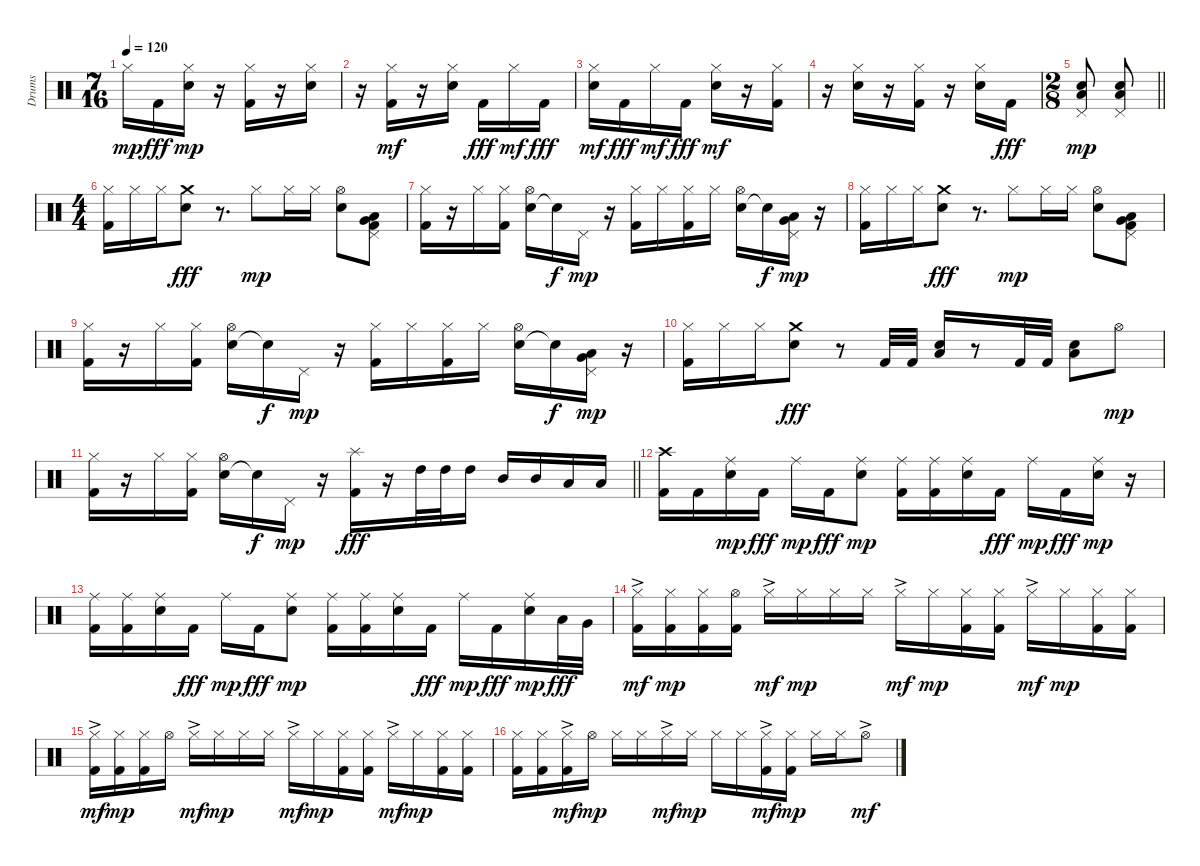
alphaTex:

\track ("Drums" "Drums") {instrument percussion}
\staff {score}
\articulation defaults
\ts (7 16)
\tempo 120
\clef neutral
\ks c "Hi-Hat (closed)".16{dy mp} "Kick (hit) 2".16{dy fff}
("Electric Snare (hit)" "Hi-Hat (closed)").16{dy mp} r.16 ("Kick (hit) 2" "Hi-Hat (closed)").16 r.16 ("Electric Snare (hit)" "Hi-Hat (closed)").16 |
r.16 ("Kick (hit) 2" "Hi-Hat (closed)").16{dy mf} r.16 ("Electric Snare (hit)" "Hi-Hat (closed)").16 "Kick (hit) 2".16{dy fff} "Hi-Hat (closed)".16{dy mf} "Kick (hit) 2".16{dy fff} |
("Electric Snare (hit)" "Hi-Hat (closed)").16{dy mf} "Kick (hit) 2".16{dy fff} "Hi-Hat (closed)".16{dy mf} "Kick (hit) 2".16{dy fff} ("Electric Snare (hit)" "Hi-Hat (closed)").16{dy mf} r.16 ("Kick (hit) 2" "Hi-Hat (closed)").16 |
r.16 ("Electric Snare (hit)" "Hi-Hat (closed)").16 r.16 ("Kick (hit) 2" "Hi-Hat (closed)").16 r.16 ("Electric Snare (hit)" "Hi-Hat (closed)").16 "Kick (hit) 2".16{dy fff} |
\ts (2 8)
\barLineRight lightlight
("Electric Snare (hit)" "Low Floor Tom (hit)" "Pedal Hi-Hat (hit)").8{dy mp} ("Electric Snare (hit)" "Low Floor Tom (hit)" "Pedal Hi-Hat (hit)").8 |
\ts (4 4)
("Kick (hit) 2" "Hi-Hat (closed)").16 "Hi-Hat (closed)".16 "Hi-Hat (closed)".16 ("Electric Snare (hit)" "Crash medium (hit)").8{dy fff} r.8{d} "Hi-Hat (closed)".8{dy mp} "Hi-Hat (closed)".16 "Hi-Hat (closed)".16 ("Electric Snare (hit)" "Hi-Hat (open)").8 ("Kick (hit) 2" "Low Floor Tom (hit)" "Very Low Tom (hit)" "Pedal Hi-Hat (hit)").8 |
("Kick (hit) 2" "Hi-Hat (closed)").16 r.16 "Hi-Hat (closed)".16 ("Kick (hit) 2" "Hi-Hat (closed)").16 ("Electric Snare (hit)" "Hi-Hat (open)").16 "Snare (hit)"{t}.16{dy f} "Pedal Hi-Hat (hit)".16{dy mp} r.16 ("Kick (hit) 2" "Hi-Hat (closed)").16 "Hi-Hat (closed)".16 ("Kick (hit) 2" "Hi-Hat (closed)").16 "Hi-Hat (closed)".16 ("Electric Snare (hit)" "Hi-Hat (open)").16 "Snare (hit)"{t}.16{dy f} ("Low Floor Tom (hit)" "Very Low Tom (hit)" "Pedal Hi-Hat (hit)").16{dy mp} r.16 |
("Kick (hit) 2" "Hi-Hat (closed)").16 "Hi-Hat (closed)".16 "Hi-Hat (closed)".16 ("Electric Snare (hit)" "Crash medium (hit)").8{dy fff} r.8{d} "Hi-Hat (closed)".8{dy mp} "Hi-Hat (closed)".16 "Hi-Hat (closed)".16 ("Electric Snare (hit)" "Hi-Hat (open)").8 ("Kick (hit) 2" "Low Floor Tom (hit)" "Very Low Tom (hit)" "Pedal Hi-Hat (hit)").8 |
("Kick (hit) 2" "Hi-Hat (closed)").16 r.16 "Hi-Hat (closed)".16 ("Kick (hit) 2" "Hi-Hat (closed)").16 ("Electric Snare (hit)" "Hi-Hat (open)").16 "Snare (hit)"{t}.16{dy f} "Pedal Hi-Hat (hit)".16{dy mp} r.16 ("Kick (hit) 2" "Hi-Hat (closed)").16 "Hi-Hat (closed)".16 ("Kick (hit) 2" "Hi-Hat (closed)").16 "Hi-Hat (closed)".16 ("Electric Snare (hit)" "Hi-Hat (open)").16 "Snare (hit)"{t}.16{dy f} ("Low Floor Tom (hit)" "Very Low Tom (hit)" "Pedal Hi-Hat (hit)").16{dy mp} r.16 |
("Kick (hit) 2" "Hi-Hat (closed)").16 "Hi-Hat (closed)".16 "Hi-Hat (closed)".16 ("Electric Snare (hit)" "Crash medium (hit)").8{dy fff} r.8 "Kick (hit) 2".32 "Kick (hit) 2".32 ("Electric Snare (hit)" "Low Floor Tom (hit)").16 r.8 "Kick (hit) 2".32 "Kick (hit) 2".32 ("Electric Snare (hit)" "Low Floor Tom (hit)").8 "Hi-Hat (open)".8{dy mp} |
\barLineRight lightlight
("Kick (hit) 2" "Hi-Hat (closed)").16 r.16 "Hi-Hat (closed)".16 ("Kick (hit) 2" "Hi-Hat (closed)").16 ("Electric Snare (hit)" "Hi-Hat (open)").16 "Snare (hit)"{t}.16{dy f} "Pedal Hi-Hat (hit)".16{dy mp} r.16 ("Kick (hit) 2" "Splash (hit)").16{dy fff} r.16 "High Tom (hit)".32 "High Tom (hit)".32 "High Tom (hit)".16 "Mid Tom (hit)".16 "Mid Tom (hit)".16 "Low Tom (hit)".16 "Low Tom (hit)".16 |
("Kick (hit) 2" "Crash high (hit)").16 "Kick (hit) 2".16 ("Electric Snare (hit)" "Ride (middle)").16{dy mp} "Kick (hit) 2".16{dy fff} "Ride (middle)".16{dy mp} "Kick (hit) 2".16{dy fff} ("Electric Snare (hit)" "Ride (middle)").8{dy mp} ("Kick (hit) 2" "Ride (middle)").16 ("Kick (hit) 2" "Ride (middle)").16 ("Electric Snare (hit)" "Ride (middle)").16 "Kick (hit) 2".16{dy fff} "Ride (middle)".16{dy mp} "Kick (hit) 2".16{dy fff} ("Electric Snare (hit)" "Ride (middle)").16{dy mp} r.16 |
("Kick (hit) 2" "Ride (middle)").16 ("Kick (hit) 2" "Ride (middle)").16 ("Electric Snare (hit)" "Ride (middle)").16 "Kick (hit) 2".16{dy fff} "Ride (middle)".16{dy mp} "Kick (hit) 2".16{dy fff} ("Electric Snare (hit)" "Ride (middle)").8{dy mp} ("Kick (hit) 2" "Ride (middle)").16 ("Kick (hit) 2" "Ride (middle)").16 ("Electric Snare (hit)" "Ride (middle)").16 "Kick (hit) 2".16{dy fff} "Ride (middle)".16{dy mp} "Kick (hit) 2".16{dy fff} ("Electric Snare (hit)" "Ride (middle)").16{dy mp} "Low Tom (hit)".32{dy fff} "Very Low Tom (hit)".32 |
("Kick (hit) 2" "Hi-Hat (closed)"{ac}).16{dy mf} ("Kick (hit) 2" "Hi-Hat (closed)").16{dy mp} ("Kick (hit) 2" "Hi-Hat (closed)").16 ("Kick (hit) 2" "Hi-Hat (open)").16 "Hi-Hat (closed)"{ac}.16{dy mf} "Hi-Hat (closed)".16{dy mp} "Hi-Hat (closed)".16 "Hi-Hat (closed)".16 "Hi-Hat (closed)"{ac}.16{dy mf} "Hi-Hat (closed)".16{dy mp} ("Kick (hit) 2" "Hi-Hat (closed)").16 ("Kick (hit) 2" "Hi-Hat (closed)").16 "Hi-Hat (closed)"{ac}.16{dy mf} "Hi-Hat (closed)".16{dy mp} ("Kick (hit) 2" "Hi-Hat (closed)").16 ("Kick (hit) 2" "Hi-Hat (closed)").16 |
("Kick (hit) 2" "Hi-Hat (closed)"{ac}).16{dy mf} ("Kick (hit) 2" "Hi-Hat (closed)").16{dy mp} ("Kick (hit) 2" "Hi-Hat (closed)").16 "Hi-Hat (open)".16 "Hi-Hat (closed)"{ac}.16{dy mf} "Hi-Hat (closed)".16{dy mp} "Hi-Hat (closed)".16 "Hi-Hat (closed)".16 "Hi-Hat (closed)"{ac}.16{dy mf} "Hi-Hat (closed)".16{dy mp} ("Kick (hit) 2" "Hi-Hat (closed)").16 ("Kick (hit) 2" "Hi-Hat (closed)").16 "Hi-Hat (closed)"{ac}.16{dy mf} "Hi-Hat (closed)".16{dy mp} ("Kick (hit) 2" "Hi-Hat (closed)").16 ("Kick (hit) 2" "Hi-Hat (closed)").16 |
("Kick (hit) 2" "Hi-Hat (closed)").16 ("Kick (hit) 2" "Hi-Hat (closed)").16 ("Kick (hit) 2" "Hi-Hat (closed)"{ac}).16{dy mf} "Hi-Hat (open)".16{dy mp} "Hi-Hat (closed)".16 "Hi-Hat (closed)".16 "Hi-Hat (closed)"{ac}.16{dy mf} "Hi-Hat (closed)".16{dy mp} "Hi-Hat (closed)".16 "Hi-Hat (closed)".16 ("Kick (hit) 2" "Hi-Hat (closed)"{ac}).16{dy mf} ("Kick (hit) 2" "Hi-Hat (closed)").16{dy mp} "Hi-Hat (closed)".16 "Hi-Hat (closed)".16 "Hi-Hat (open)"{ac}.8{dy mf}
